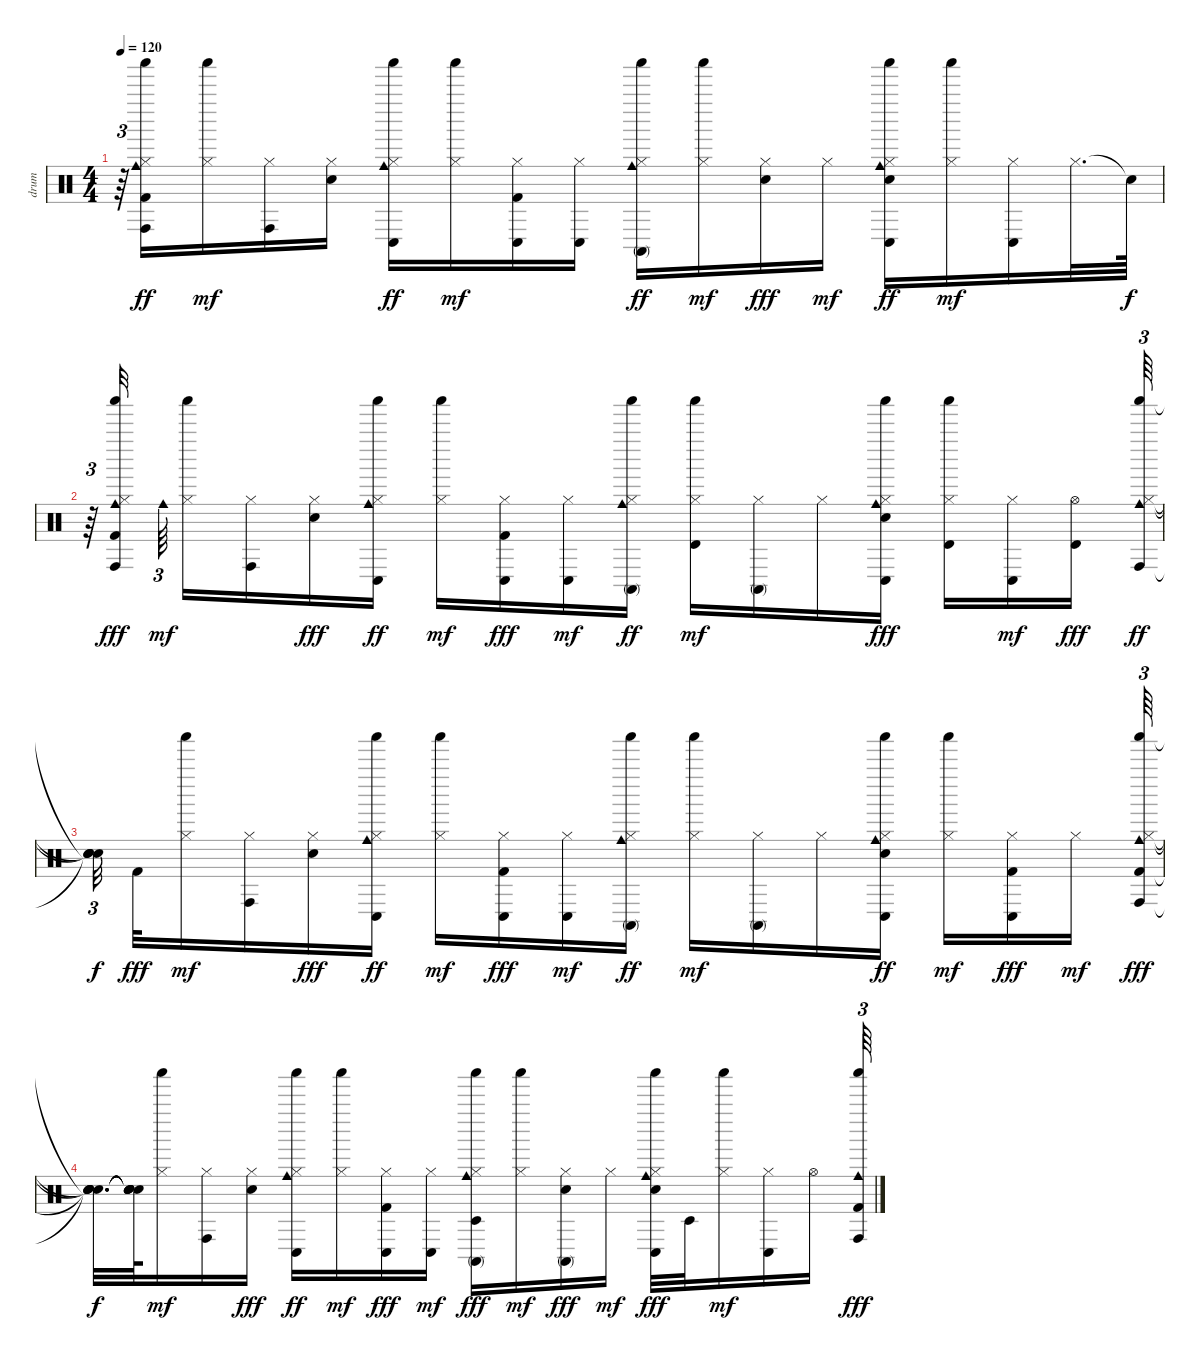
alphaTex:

\track ("drum" "drum") {instrument percussion}
\staff {score}
\articulation defaults
\ts (4 4)
\tempo 120
\clef neutral
\ks c
r.64{tu (3 2) dy f} ("Conga high (hit)" "Shaker (hit)" "Cowbell medium (hit)" "Kick (hit) 2" "Hi-Hat (closed)").16{dy ff} ("Shaker (hit)" "Hi-Hat (closed)").16{dy mf} ("Conga high (hit)" "Hi-Hat (closed)").16 ("Electric Snare (hit)" "Hi-Hat (closed)").16 ("Conga low (hit)" "Cowbell medium (hit)" "Shaker (hit)" "Hi-Hat (closed)").16{dy ff} ("Shaker (hit)" "Hi-Hat (closed)").16{dy mf} ("Conga low (hit)" "Kick (hit) 2" "Hi-Hat (closed)").16 ("Conga low (hit)" "Hi-Hat (closed)").16 ("Conga high (mute)" "Cowbell medium (hit)" "Shaker (hit)" "Hi-Hat (closed)").16{dy ff} ("Shaker (hit)" "Hi-Hat (closed)").16{dy mf} ("Hi-Hat (closed)" "Electric Snare (hit)").16{dy fff} "Hi-Hat (closed)".16{dy mf} ("Conga low (hit)" "Shaker (hit)" "Cowbell medium (hit)" "Electric Snare (hit)" "Hi-Hat (closed)").16{dy ff} ("Hi-Hat (closed)" "Shaker (hit)").16{dy mf} ("Conga low (hit)" "Hi-Hat (closed)").16 "Hi-Hat (closed)".32{d} "Snare (hit)"{t}.64{dy f} |
r.64{tu (3 2)} ("Conga high (hit)" "Shaker (hit)" "Cowbell medium (hit)" "Hi-Hat (closed)" "Kick (hit) 2").32{dy fff beam splitsecondary} "Cowbell medium (hit)".64{tu (3 2) dy mf beam splitsecondary} ("Shaker (hit)" "Hi-Hat (closed)").16 ("Conga high (hit)" "Hi-Hat (closed)").16 ("Hi-Hat (closed)" "Electric Snare (hit)").16{dy fff} ("Conga low (hit)" "Cowbell medium (hit)" "Shaker (hit)" "Hi-Hat (closed)").16{dy ff} ("Shaker (hit)" "Hi-Hat (closed)").16{dy mf} ("Conga low (hit)" "Hi-Hat (closed)" "Kick (hit) 2").16{dy fff} ("Conga low (hit)" "Hi-Hat (closed)").16{dy mf} ("Conga high (mute)" "Cowbell medium (hit)" "Shaker (hit)" "Hi-Hat (closed)").16{dy ff} ("Shaker (hit)" "Timbale high (hit)" "Hi-Hat (closed)").16{dy mf} ("Conga high (mute)" "Hi-Hat (closed)").16 "Hi-Hat (closed)".16 ("Conga low (hit)" "Cowbell medium (hit)" "Shaker (hit)" "Hi-Hat (closed)" "Electric Snare (hit)").16{dy fff} ("Shaker (hit)" "Hi-Hat (closed)" "Timbale high (hit)").16 ("Conga low (hit)" "Hi-Hat (closed)").16{dy mf} ("Hi-Hat (open)" "Timbale high (hit)").16{dy fff beam splitsecondary} ("Conga high (hit)" "Shaker (hit)" "Cowbell medium (hit)" "Hi-Hat (closed)").64{tu (3 2) dy ff} |
("Snare (hit)"{t} "Snare (hit)"{t} "Snare (hit)"{t} "Snare (hit)"{t}).32{tu (3 2) dy f beam splitsecondary} "Kick (hit) 2".32{dy fff} ("Shaker (hit)" "Hi-Hat (closed)").16{dy mf} ("Conga high (hit)" "Hi-Hat (closed)").16 ("Hi-Hat (closed)" "Electric Snare (hit)").16{dy fff} ("Conga low (hit)" "Cowbell medium (hit)" "Shaker (hit)" "Hi-Hat (closed)").16{dy ff} ("Shaker (hit)" "Hi-Hat (closed)").16{dy mf} ("Conga low (hit)" "Hi-Hat (closed)" "Kick (hit) 2").16{dy fff} ("Conga low (hit)" "Hi-Hat (closed)").16{dy mf} ("Conga high (mute)" "Cowbell medium (hit)" "Shaker (hit)" "Hi-Hat (closed)").16{dy ff} ("Shaker (hit)" "Hi-Hat (closed)").16{dy mf} ("Conga high (mute)" "Hi-Hat (closed)").16 "Hi-Hat (closed)".16 ("Conga low (hit)" "Cowbell medium (hit)" "Shaker (hit)" "Electric Snare (hit)" "Hi-Hat (closed)").16{dy ff} ("Shaker (hit)" "Hi-Hat (closed)").16{dy mf} ("Conga low (hit)" "Hi-Hat (closed)" "Kick (hit) 2").16{dy fff} "Hi-Hat (closed)".16{dy mf beam splitsecondary} ("Conga high (hit)" "Cowbell medium (hit)" "Shaker (hit)" "Hi-Hat (closed)" "Kick (hit) 2").64{tu (3 2) dy fff} |
("Snare (hit)"{t} "Snare (hit)"{t} "Snare (hit)"{t} "Snare (hit)"{t} "Snare (hit)"{t}).32{d dy f} ("Snare (hit)"{t} "Snare (hit)"{t} "Snare (hit)"{t} "Snare (hit)"{t} "Snare (hit)"{t}).64 ("Shaker (hit)" "Hi-Hat (closed)").16{dy mf} ("Conga high (hit)" "Hi-Hat (closed)").16 ("Hi-Hat (closed)" "Electric Snare (hit)").16{dy fff} ("Conga low (hit)" "Cowbell medium (hit)" "Shaker (hit)" "Hi-Hat (closed)").16{dy ff} ("Shaker (hit)" "Hi-Hat (closed)").16{dy mf} ("Conga low (hit)" "Hi-Hat (closed)" "Kick (hit) 2").16{dy fff} ("Conga low (hit)" "Hi-Hat (closed)").16{dy mf} ("Conga high (mute)" "Cowbell medium (hit)" "Shaker (hit)" "Hi-Hat (closed)" "Timbale low (hit)").16{dy fff} ("Shaker (hit)" "Hi-Hat (closed)").16{dy mf} ("Conga high (mute)" "Hi-Hat (closed)" "Electric Snare (hit)").16{dy fff} "Hi-Hat (closed)".16{dy mf} ("Conga low (hit)" "Hi-Hat (closed)" "Shaker (hit)" "Cowbell medium (hit)" "Electric Snare (hit)").32{dy fff} "Timbale low (hit)".32 ("Shaker (hit)" "Hi-Hat (closed)").16{dy mf} ("Conga low (hit)" "Hi-Hat (closed)").16 "Hi-Hat (open)".16 ("Conga high (hit)" "Shaker (hit)" "Cowbell medium (hit)" "Kick (hit) 2").64{tu (3 2) dy fff}
